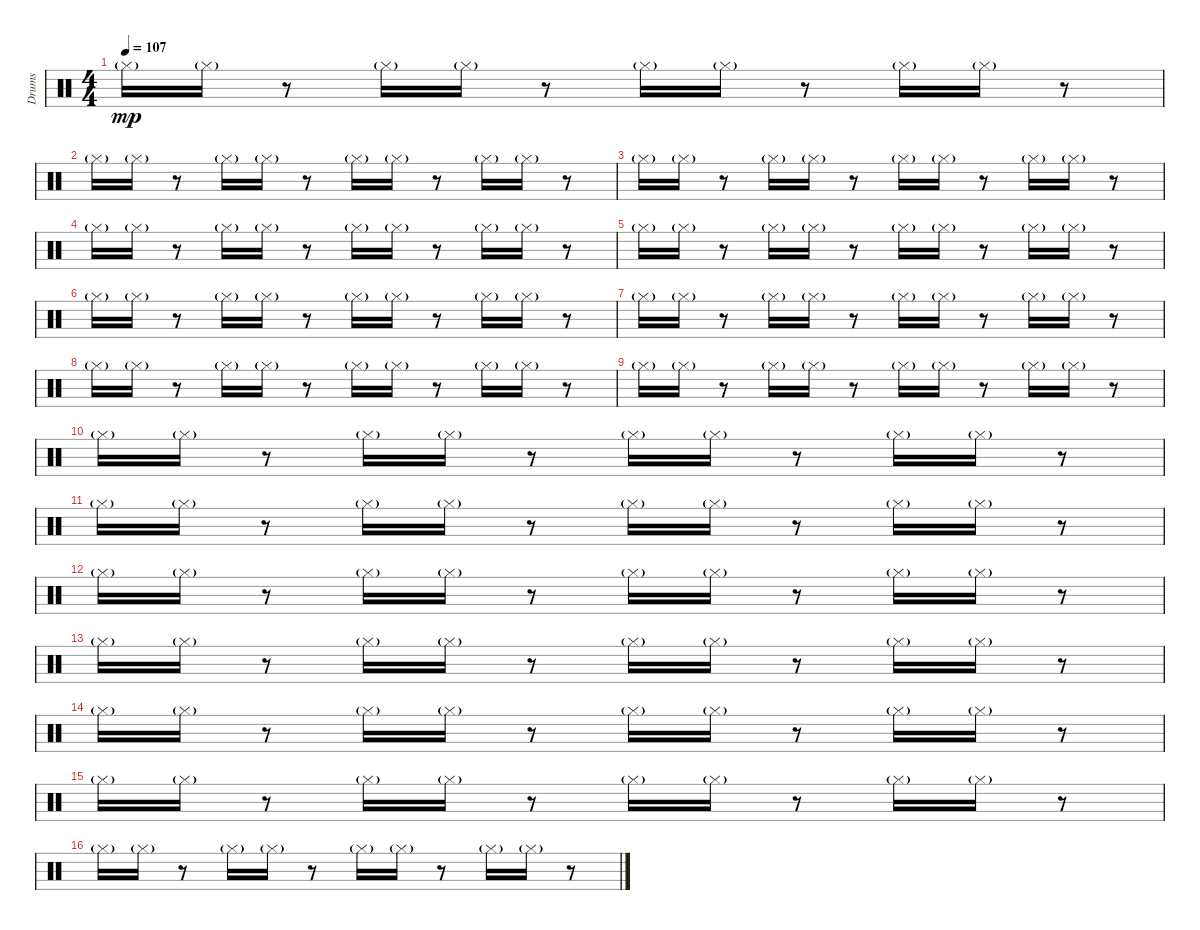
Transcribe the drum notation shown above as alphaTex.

\track ("Drums" "Drums") {instrument percussion}
\staff {score}
\articulation defaults
\ts (4 4)
\tempo 107
\clef neutral
\ks c "Hi-Hat (closed)"{g}.16{dy mp} "Hi-Hat (closed)"{g}.16
r.8 "Hi-Hat (closed)"{g}.16 "Hi-Hat (closed)"{g}.16 r.8 "Hi-Hat (closed)"{g}.16 "Hi-Hat (closed)"{g}.16 r.8 "Hi-Hat (closed)"{g}.16 "Hi-Hat (closed)"{g}.16 r.8 |
"Hi-Hat (closed)"{g}.16 "Hi-Hat (closed)"{g}.16 r.8 "Hi-Hat (closed)"{g}.16 "Hi-Hat (closed)"{g}.16 r.8 "Hi-Hat (closed)"{g}.16 "Hi-Hat (closed)"{g}.16 r.8 "Hi-Hat (closed)"{g}.16 "Hi-Hat (closed)"{g}.16 r.8 |
"Hi-Hat (closed)"{g}.16 "Hi-Hat (closed)"{g}.16 r.8 "Hi-Hat (closed)"{g}.16 "Hi-Hat (closed)"{g}.16 r.8 "Hi-Hat (closed)"{g}.16 "Hi-Hat (closed)"{g}.16 r.8 "Hi-Hat (closed)"{g}.16 "Hi-Hat (closed)"{g}.16 r.8 |
"Hi-Hat (closed)"{g}.16 "Hi-Hat (closed)"{g}.16 r.8 "Hi-Hat (closed)"{g}.16 "Hi-Hat (closed)"{g}.16 r.8 "Hi-Hat (closed)"{g}.16 "Hi-Hat (closed)"{g}.16 r.8 "Hi-Hat (closed)"{g}.16 "Hi-Hat (closed)"{g}.16 r.8 |
"Hi-Hat (closed)"{g}.16 "Hi-Hat (closed)"{g}.16 r.8 "Hi-Hat (closed)"{g}.16 "Hi-Hat (closed)"{g}.16 r.8 "Hi-Hat (closed)"{g}.16 "Hi-Hat (closed)"{g}.16 r.8 "Hi-Hat (closed)"{g}.16 "Hi-Hat (closed)"{g}.16 r.8 |
"Hi-Hat (closed)"{g}.16 "Hi-Hat (closed)"{g}.16 r.8 "Hi-Hat (closed)"{g}.16 "Hi-Hat (closed)"{g}.16 r.8 "Hi-Hat (closed)"{g}.16 "Hi-Hat (closed)"{g}.16 r.8 "Hi-Hat (closed)"{g}.16 "Hi-Hat (closed)"{g}.16 r.8 |
"Hi-Hat (closed)"{g}.16 "Hi-Hat (closed)"{g}.16 r.8 "Hi-Hat (closed)"{g}.16 "Hi-Hat (closed)"{g}.16 r.8 "Hi-Hat (closed)"{g}.16 "Hi-Hat (closed)"{g}.16 r.8 "Hi-Hat (closed)"{g}.16 "Hi-Hat (closed)"{g}.16 r.8 |
"Hi-Hat (closed)"{g}.16 "Hi-Hat (closed)"{g}.16 r.8 "Hi-Hat (closed)"{g}.16 "Hi-Hat (closed)"{g}.16 r.8 "Hi-Hat (closed)"{g}.16 "Hi-Hat (closed)"{g}.16 r.8 "Hi-Hat (closed)"{g}.16 "Hi-Hat (closed)"{g}.16 r.8 |
"Hi-Hat (closed)"{g}.16 "Hi-Hat (closed)"{g}.16 r.8 "Hi-Hat (closed)"{g}.16 "Hi-Hat (closed)"{g}.16 r.8 "Hi-Hat (closed)"{g}.16 "Hi-Hat (closed)"{g}.16 r.8 "Hi-Hat (closed)"{g}.16 "Hi-Hat (closed)"{g}.16 r.8 |
"Hi-Hat (closed)"{g}.16 "Hi-Hat (closed)"{g}.16 r.8 "Hi-Hat (closed)"{g}.16 "Hi-Hat (closed)"{g}.16 r.8 "Hi-Hat (closed)"{g}.16 "Hi-Hat (closed)"{g}.16 r.8 "Hi-Hat (closed)"{g}.16 "Hi-Hat (closed)"{g}.16 r.8 |
"Hi-Hat (closed)"{g}.16 "Hi-Hat (closed)"{g}.16 r.8 "Hi-Hat (closed)"{g}.16 "Hi-Hat (closed)"{g}.16 r.8 "Hi-Hat (closed)"{g}.16 "Hi-Hat (closed)"{g}.16 r.8 "Hi-Hat (closed)"{g}.16 "Hi-Hat (closed)"{g}.16 r.8 |
"Hi-Hat (closed)"{g}.16 "Hi-Hat (closed)"{g}.16 r.8 "Hi-Hat (closed)"{g}.16 "Hi-Hat (closed)"{g}.16 r.8 "Hi-Hat (closed)"{g}.16 "Hi-Hat (closed)"{g}.16 r.8 "Hi-Hat (closed)"{g}.16 "Hi-Hat (closed)"{g}.16 r.8 |
"Hi-Hat (closed)"{g}.16 "Hi-Hat (closed)"{g}.16 r.8 "Hi-Hat (closed)"{g}.16 "Hi-Hat (closed)"{g}.16 r.8 "Hi-Hat (closed)"{g}.16 "Hi-Hat (closed)"{g}.16 r.8 "Hi-Hat (closed)"{g}.16 "Hi-Hat (closed)"{g}.16 r.8 |
"Hi-Hat (closed)"{g}.16 "Hi-Hat (closed)"{g}.16 r.8 "Hi-Hat (closed)"{g}.16 "Hi-Hat (closed)"{g}.16 r.8 "Hi-Hat (closed)"{g}.16 "Hi-Hat (closed)"{g}.16 r.8 "Hi-Hat (closed)"{g}.16 "Hi-Hat (closed)"{g}.16 r.8 |
"Hi-Hat (closed)"{g}.16 "Hi-Hat (closed)"{g}.16 r.8 "Hi-Hat (closed)"{g}.16 "Hi-Hat (closed)"{g}.16 r.8 "Hi-Hat (closed)"{g}.16 "Hi-Hat (closed)"{g}.16 r.8 "Hi-Hat (closed)"{g}.16 "Hi-Hat (closed)"{g}.16 r.8 |
"Hi-Hat (closed)"{g}.16 "Hi-Hat (closed)"{g}.16 r.8 "Hi-Hat (closed)"{g}.16 "Hi-Hat (closed)"{g}.16 r.8 "Hi-Hat (closed)"{g}.16 "Hi-Hat (closed)"{g}.16 r.8 "Hi-Hat (closed)"{g}.16 "Hi-Hat (closed)"{g}.16 r.8
